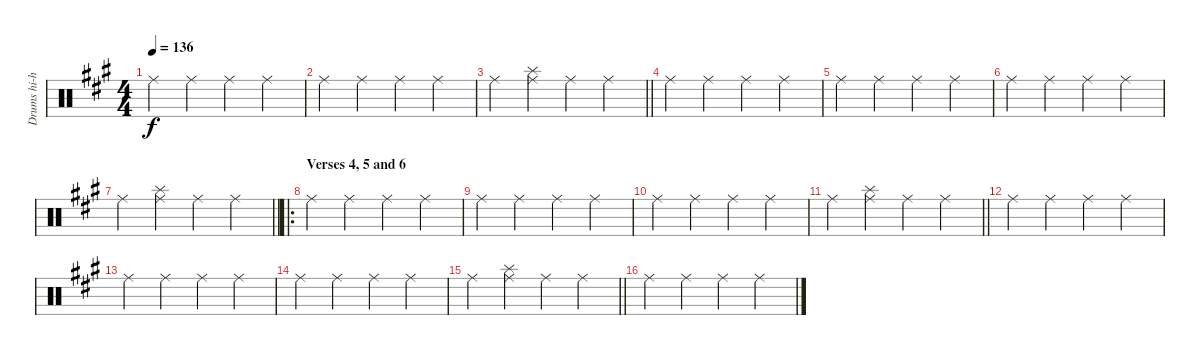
\track ("Drums hi-hat" "Drums hi-h") {instrument percussion}
\staff {score}
\articulation defaults
\ts (4 4)
\tempo 136
\clef neutral
\ks a "Ride (middle)".4{dy f} "Ride (middle)".4 "Ride (middle)".4 "Ride (middle)".4
|
"Ride (middle)".4 "Ride (middle)".4 "Ride (middle)".4 "Ride (middle)".4 |
\barLineRight lightlight "Ride (middle)".4
("Splash (hit)" "Ride (middle)").4 "Ride (middle)".4 "Ride (middle)".4 |
"Ride (middle)".4 "Ride (middle)".4 "Ride (middle)".4 "Ride (middle)".4 |
"Ride (middle)".4 "Ride (middle)".4 "Ride (middle)".4 "Ride (middle)".4 |
"Ride (middle)".4 "Ride (middle)".4 "Ride (middle)".4 "Ride (middle)".4 |
\barLineRight lightlight "Ride (middle)".4
("Splash (hit)" "Ride (middle)").4 "Ride (middle)".4 "Ride (middle)".4 |
\ro
\section ("" "Verses 4, 5 and 6")
"Ride (middle)".4 "Ride (middle)".4 "Ride (middle)".4 "Ride (middle)".4 |
"Ride (middle)".4 "Ride (middle)".4 "Ride (middle)".4 "Ride (middle)".4 |
"Ride (middle)".4 "Ride (middle)".4 "Ride (middle)".4 "Ride (middle)".4 |
\barLineRight lightlight "Ride (middle)".4
("Splash (hit)" "Ride (middle)").4 "Ride (middle)".4 "Ride (middle)".4 |
"Ride (middle)".4 "Ride (middle)".4 "Ride (middle)".4 "Ride (middle)".4 |
"Ride (middle)".4 "Ride (middle)".4 "Ride (middle)".4 "Ride (middle)".4 |
"Ride (middle)".4 "Ride (middle)".4 "Ride (middle)".4 "Ride (middle)".4 |
\barLineRight lightlight "Ride (middle)".4
("Splash (hit)" "Ride (middle)").4 "Ride (middle)".4 "Ride (middle)".4 |
"Ride (middle)".4 "Ride (middle)".4 "Ride (middle)".4 "Ride (middle)".4
